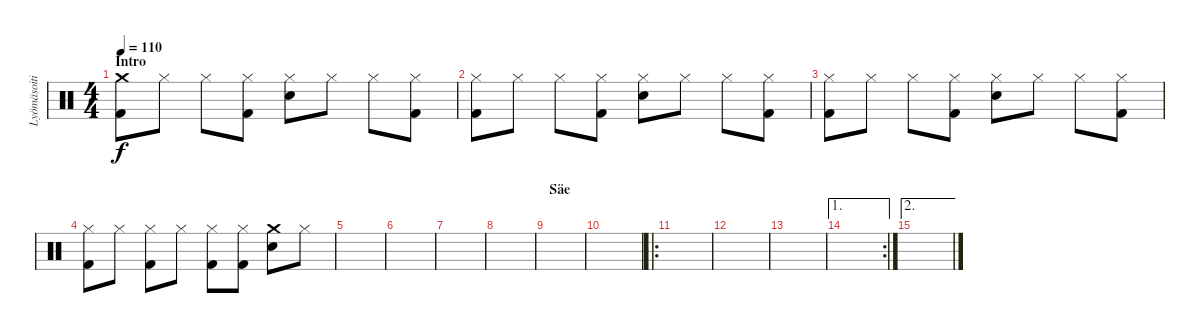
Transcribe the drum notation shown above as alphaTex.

\track ("Lyömäsoitin" "Lyömäsoiti") {instrument percussion}
\staff {score}
\articulation defaults
\ts (4 4)
\section ("" "Intro")
\tempo 110
\clef neutral
\ks c
("Crash medium (hit)" "Kick (hit) 2").8{dy f} "Hi-Hat (closed)".8 "Hi-Hat (closed)".8 ("Kick (hit) 2" "Hi-Hat (closed)").8 ("Snare (hit) 2" "Hi-Hat (closed)").8 "Hi-Hat (closed)".8 "Hi-Hat (closed)".8 ("Kick (hit) 2" "Hi-Hat (closed)").8 |
("Kick (hit) 2" "Hi-Hat (closed)").8 "Hi-Hat (closed)".8 "Hi-Hat (closed)".8 ("Kick (hit) 2" "Hi-Hat (closed)").8 ("Snare (hit) 2" "Hi-Hat (closed)").8 "Hi-Hat (closed)".8 "Hi-Hat (closed)".8 ("Kick (hit) 2" "Hi-Hat (closed)").8 |
("Kick (hit) 2" "Hi-Hat (closed)").8 "Hi-Hat (closed)".8 "Hi-Hat (closed)".8 ("Kick (hit) 2" "Hi-Hat (closed)").8 ("Snare (hit) 2" "Hi-Hat (closed)").8 "Hi-Hat (closed)".8 "Hi-Hat (closed)".8 ("Kick (hit) 2" "Hi-Hat (closed)").8 |
("Kick (hit) 2" "Hi-Hat (closed)").8 "Hi-Hat (closed)".8 ("Kick (hit) 2" "Hi-Hat (closed)").8 "Hi-Hat (closed)".8 ("Kick (hit) 2" "Hi-Hat (closed)").8 ("Kick (hit) 2" "Hi-Hat (closed)").8 ("Snare (hit) 2" "Crash medium (hit)").8 "Hi-Hat (closed)".8 |
|
|
|
|
\section ("" "Säe")
|
|
\ro
|
|
|
\ae 1
\rc 2
|
\ae 2
